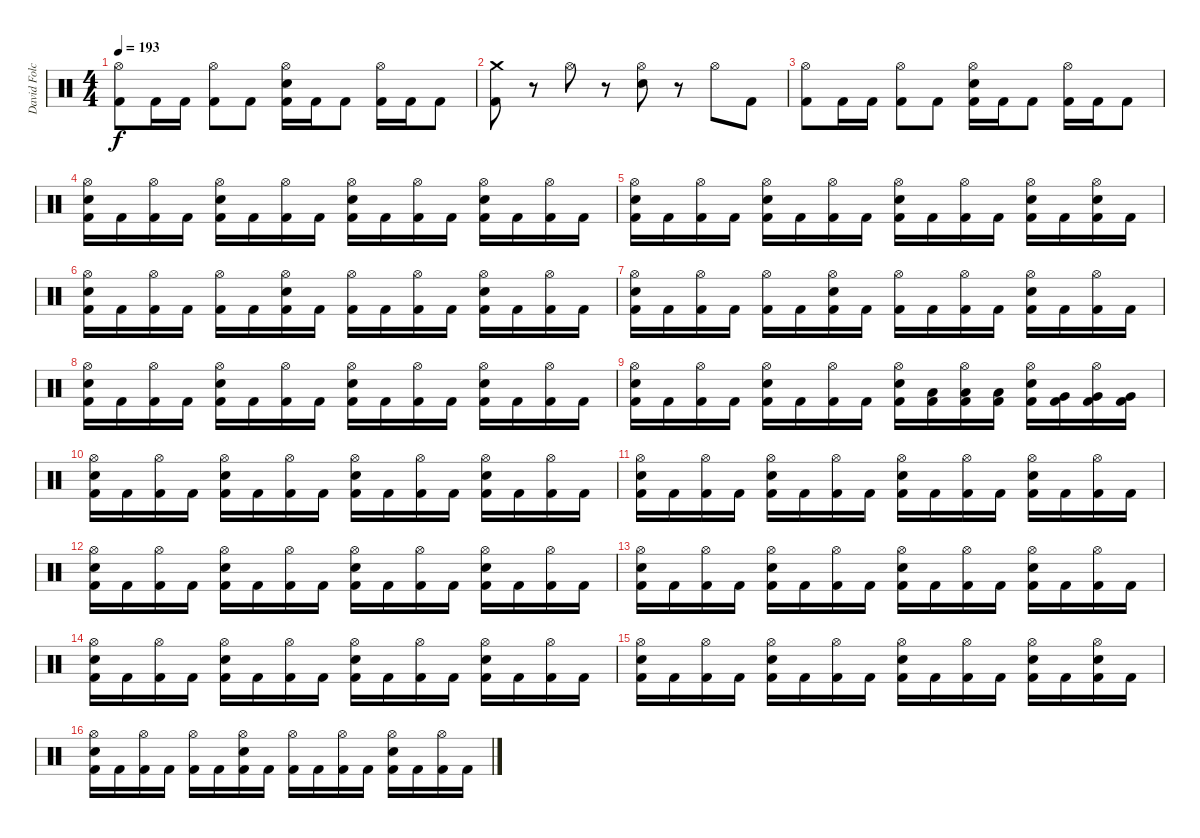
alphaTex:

\track ("David Folchitto (Drums)" "David Folc") {instrument percussion}
\staff {score}
\articulation defaults
\ts (4 4)
\tempo 193
\clef neutral
\ks c
("Hi-Hat (open)" "Kick (hit) 2").8{dy f} "Kick (hit) 2".16 "Kick (hit) 2".16 ("Hi-Hat (open)" "Kick (hit) 2").8 "Kick (hit) 2".8 ("Hi-Hat (open)" "Snare (hit) 2" "Kick (hit) 2").16 "Kick (hit) 2".16 "Kick (hit) 2".8 ("Hi-Hat (open)" "Kick (hit) 2").16 "Kick (hit) 2".16 "Kick (hit) 2".8 |
("Crash medium (hit)" "Kick (hit) 2").8 r.8 "Hi-Hat (open)".8 r.8 ("Hi-Hat (open)" "Snare (hit) 2").8 r.8 "Hi-Hat (open)".8 "Kick (hit) 2".8 |
("Hi-Hat (open)" "Kick (hit) 2").8 "Kick (hit) 2".16 "Kick (hit) 2".16 ("Hi-Hat (open)" "Kick (hit) 2").8 "Kick (hit) 2".8 ("Hi-Hat (open)" "Snare (hit) 2" "Kick (hit) 2").16 "Kick (hit) 2".16 "Kick (hit) 2".8 ("Hi-Hat (open)" "Kick (hit) 2").16 "Kick (hit) 2".16 "Kick (hit) 2".8 |
("Hi-Hat (open)" "Snare (hit) 2" "Kick (hit) 2").16 "Kick (hit) 2".16 ("Hi-Hat (open)" "Kick (hit) 2").16 "Kick (hit) 2".16 ("Hi-Hat (open)" "Snare (hit) 2" "Kick (hit) 2").16 "Kick (hit) 2".16 ("Hi-Hat (open)" "Kick (hit) 2").16 "Kick (hit) 2".16 ("Hi-Hat (open)" "Snare (hit) 2" "Kick (hit) 2").16 "Kick (hit) 2".16 ("Hi-Hat (open)" "Kick (hit) 2").16 "Kick (hit) 2".16 ("Hi-Hat (open)" "Snare (hit) 2" "Kick (hit) 2").16 "Kick (hit) 2".16 ("Hi-Hat (open)" "Kick (hit) 2").16 "Kick (hit) 2".16 |
("Hi-Hat (open)" "Snare (hit) 2" "Kick (hit) 2").16 "Kick (hit) 2".16 ("Hi-Hat (open)" "Kick (hit) 2").16 "Kick (hit) 2".16 ("Hi-Hat (open)" "Snare (hit) 2" "Kick (hit) 2").16 "Kick (hit) 2".16 ("Hi-Hat (open)" "Kick (hit) 2").16 "Kick (hit) 2".16 ("Hi-Hat (open)" "Snare (hit) 2" "Kick (hit) 2").16 "Kick (hit) 2".16 ("Hi-Hat (open)" "Kick (hit) 2").16 "Kick (hit) 2".16 ("Hi-Hat (open)" "Snare (hit) 2" "Kick (hit) 2").16 "Kick (hit) 2".16 ("Hi-Hat (open)" "Snare (hit) 2" "Kick (hit) 2").16 "Kick (hit) 2".16 |
("Hi-Hat (open)" "Snare (hit) 2" "Kick (hit) 2").16 "Kick (hit) 2".16 ("Hi-Hat (open)" "Kick (hit) 2").16 "Kick (hit) 2".16 ("Hi-Hat (open)" "Kick (hit) 2").16 "Kick (hit) 2".16 ("Hi-Hat (open)" "Snare (hit) 2" "Kick (hit) 2").16 "Kick (hit) 2".16 ("Hi-Hat (open)" "Kick (hit) 2").16 "Kick (hit) 2".16 ("Hi-Hat (open)" "Kick (hit) 2").16 "Kick (hit) 2".16 ("Hi-Hat (open)" "Snare (hit) 2" "Kick (hit) 2").16 "Kick (hit) 2".16 ("Hi-Hat (open)" "Kick (hit) 2").16 "Kick (hit) 2".16 |
("Hi-Hat (open)" "Snare (hit) 2" "Kick (hit) 2").16 "Kick (hit) 2".16 ("Hi-Hat (open)" "Kick (hit) 2").16 "Kick (hit) 2".16 ("Hi-Hat (open)" "Kick (hit) 2").16 "Kick (hit) 2".16 ("Hi-Hat (open)" "Snare (hit) 2" "Kick (hit) 2").16 "Kick (hit) 2".16 ("Hi-Hat (open)" "Kick (hit) 2").16 "Kick (hit) 2".16 ("Hi-Hat (open)" "Kick (hit) 2").16 "Kick (hit) 2".16 ("Hi-Hat (open)" "Snare (hit) 2" "Kick (hit) 2").16 "Kick (hit) 2".16 ("Hi-Hat (open)" "Kick (hit) 2").16 "Kick (hit) 2".16 |
("Hi-Hat (open)" "Snare (hit) 2" "Kick (hit) 2").16 "Kick (hit) 2".16 ("Hi-Hat (open)" "Kick (hit) 2").16 "Kick (hit) 2".16 ("Hi-Hat (open)" "Snare (hit) 2" "Kick (hit) 2").16 "Kick (hit) 2".16 ("Hi-Hat (open)" "Kick (hit) 2").16 "Kick (hit) 2".16 ("Hi-Hat (open)" "Snare (hit) 2" "Kick (hit) 2").16 "Kick (hit) 2".16 ("Hi-Hat (open)" "Kick (hit) 2").16 "Kick (hit) 2".16 ("Hi-Hat (open)" "Snare (hit) 2" "Kick (hit) 2").16 "Kick (hit) 2".16 ("Hi-Hat (open)" "Kick (hit) 2").16 "Kick (hit) 2".16 |
("Hi-Hat (open)" "Snare (hit) 2" "Kick (hit) 2").16 "Kick (hit) 2".16 ("Hi-Hat (open)" "Kick (hit) 2").16 "Kick (hit) 2".16 ("Hi-Hat (open)" "Snare (hit) 2" "Kick (hit) 2").16 "Kick (hit) 2".16 ("Hi-Hat (open)" "Kick (hit) 2").16 "Kick (hit) 2".16 ("Hi-Hat (open)" "Snare (hit) 2" "Kick (hit) 2").16 ("Low Tom (hit)" "Kick (hit) 2").16 ("Hi-Hat (open)" "Low Tom (hit)" "Kick (hit) 2").16 ("Low Tom (hit)" "Kick (hit) 2").16 ("Hi-Hat (open)" "Snare (hit) 2" "Kick (hit) 2").16 ("Very Low Tom (hit)" "Kick (hit) 2").16 ("Hi-Hat (open)" "Very Low Tom (hit)" "Kick (hit) 2").16 ("Very Low Tom (hit)" "Kick (hit) 2").16 |
("Hi-Hat (open)" "Snare (hit) 2" "Kick (hit) 2").16 "Kick (hit) 2".16 ("Hi-Hat (open)" "Kick (hit) 2").16 "Kick (hit) 2".16 ("Hi-Hat (open)" "Snare (hit) 2" "Kick (hit) 2").16 "Kick (hit) 2".16 ("Hi-Hat (open)" "Kick (hit) 2").16 "Kick (hit) 2".16 ("Hi-Hat (open)" "Snare (hit) 2" "Kick (hit) 2").16 "Kick (hit) 2".16 ("Hi-Hat (open)" "Kick (hit) 2").16 "Kick (hit) 2".16 ("Hi-Hat (open)" "Snare (hit) 2" "Kick (hit) 2").16 "Kick (hit) 2".16 ("Hi-Hat (open)" "Kick (hit) 2").16 "Kick (hit) 2".16 |
("Hi-Hat (open)" "Snare (hit) 2" "Kick (hit) 2").16 "Kick (hit) 2".16 ("Hi-Hat (open)" "Kick (hit) 2").16 "Kick (hit) 2".16 ("Hi-Hat (open)" "Snare (hit) 2" "Kick (hit) 2").16 "Kick (hit) 2".16 ("Hi-Hat (open)" "Kick (hit) 2").16 "Kick (hit) 2".16 ("Hi-Hat (open)" "Snare (hit) 2" "Kick (hit) 2").16 "Kick (hit) 2".16 ("Hi-Hat (open)" "Kick (hit) 2").16 "Kick (hit) 2".16 ("Hi-Hat (open)" "Snare (hit) 2" "Kick (hit) 2").16 "Kick (hit) 2".16 ("Hi-Hat (open)" "Kick (hit) 2").16 "Kick (hit) 2".16 |
("Hi-Hat (open)" "Snare (hit) 2" "Kick (hit) 2").16 "Kick (hit) 2".16 ("Hi-Hat (open)" "Kick (hit) 2").16 "Kick (hit) 2".16 ("Hi-Hat (open)" "Snare (hit) 2" "Kick (hit) 2").16 "Kick (hit) 2".16 ("Hi-Hat (open)" "Kick (hit) 2").16 "Kick (hit) 2".16 ("Hi-Hat (open)" "Snare (hit) 2" "Kick (hit) 2").16 "Kick (hit) 2".16 ("Hi-Hat (open)" "Kick (hit) 2").16 "Kick (hit) 2".16 ("Hi-Hat (open)" "Snare (hit) 2" "Kick (hit) 2").16 "Kick (hit) 2".16 ("Hi-Hat (open)" "Kick (hit) 2").16 "Kick (hit) 2".16 |
("Hi-Hat (open)" "Snare (hit) 2" "Kick (hit) 2").16 "Kick (hit) 2".16 ("Hi-Hat (open)" "Kick (hit) 2").16 "Kick (hit) 2".16 ("Hi-Hat (open)" "Snare (hit) 2" "Kick (hit) 2").16 "Kick (hit) 2".16 ("Hi-Hat (open)" "Kick (hit) 2").16 "Kick (hit) 2".16 ("Hi-Hat (open)" "Snare (hit) 2" "Kick (hit) 2").16 "Kick (hit) 2".16 ("Hi-Hat (open)" "Kick (hit) 2").16 "Kick (hit) 2".16 ("Hi-Hat (open)" "Snare (hit) 2" "Kick (hit) 2").16 "Kick (hit) 2".16 ("Hi-Hat (open)" "Kick (hit) 2").16 "Kick (hit) 2".16 |
("Hi-Hat (open)" "Snare (hit) 2" "Kick (hit) 2").16 "Kick (hit) 2".16 ("Hi-Hat (open)" "Kick (hit) 2").16 "Kick (hit) 2".16 ("Hi-Hat (open)" "Snare (hit) 2" "Kick (hit) 2").16 "Kick (hit) 2".16 ("Hi-Hat (open)" "Kick (hit) 2").16 "Kick (hit) 2".16 ("Hi-Hat (open)" "Snare (hit) 2" "Kick (hit) 2").16 "Kick (hit) 2".16 ("Hi-Hat (open)" "Kick (hit) 2").16 "Kick (hit) 2".16 ("Hi-Hat (open)" "Snare (hit) 2" "Kick (hit) 2").16 "Kick (hit) 2".16 ("Hi-Hat (open)" "Kick (hit) 2").16 "Kick (hit) 2".16 |
("Hi-Hat (open)" "Snare (hit) 2" "Kick (hit) 2").16 "Kick (hit) 2".16 ("Hi-Hat (open)" "Kick (hit) 2").16 "Kick (hit) 2".16 ("Hi-Hat (open)" "Snare (hit) 2" "Kick (hit) 2").16 "Kick (hit) 2".16 ("Hi-Hat (open)" "Kick (hit) 2").16 "Kick (hit) 2".16 ("Hi-Hat (open)" "Snare (hit) 2" "Kick (hit) 2").16 "Kick (hit) 2".16 ("Hi-Hat (open)" "Kick (hit) 2").16 "Kick (hit) 2".16 ("Hi-Hat (open)" "Snare (hit) 2" "Kick (hit) 2").16 "Kick (hit) 2".16 ("Hi-Hat (open)" "Snare (hit) 2" "Kick (hit) 2").16 "Kick (hit) 2".16 |
("Hi-Hat (open)" "Snare (hit) 2" "Kick (hit) 2").16 "Kick (hit) 2".16 ("Hi-Hat (open)" "Kick (hit) 2").16 "Kick (hit) 2".16 ("Hi-Hat (open)" "Kick (hit) 2").16 "Kick (hit) 2".16 ("Hi-Hat (open)" "Snare (hit) 2" "Kick (hit) 2").16 "Kick (hit) 2".16 ("Hi-Hat (open)" "Kick (hit) 2").16 "Kick (hit) 2".16 ("Hi-Hat (open)" "Kick (hit) 2").16 "Kick (hit) 2".16 ("Hi-Hat (open)" "Snare (hit) 2" "Kick (hit) 2").16 "Kick (hit) 2".16 ("Hi-Hat (open)" "Kick (hit) 2").16 "Kick (hit) 2".16
